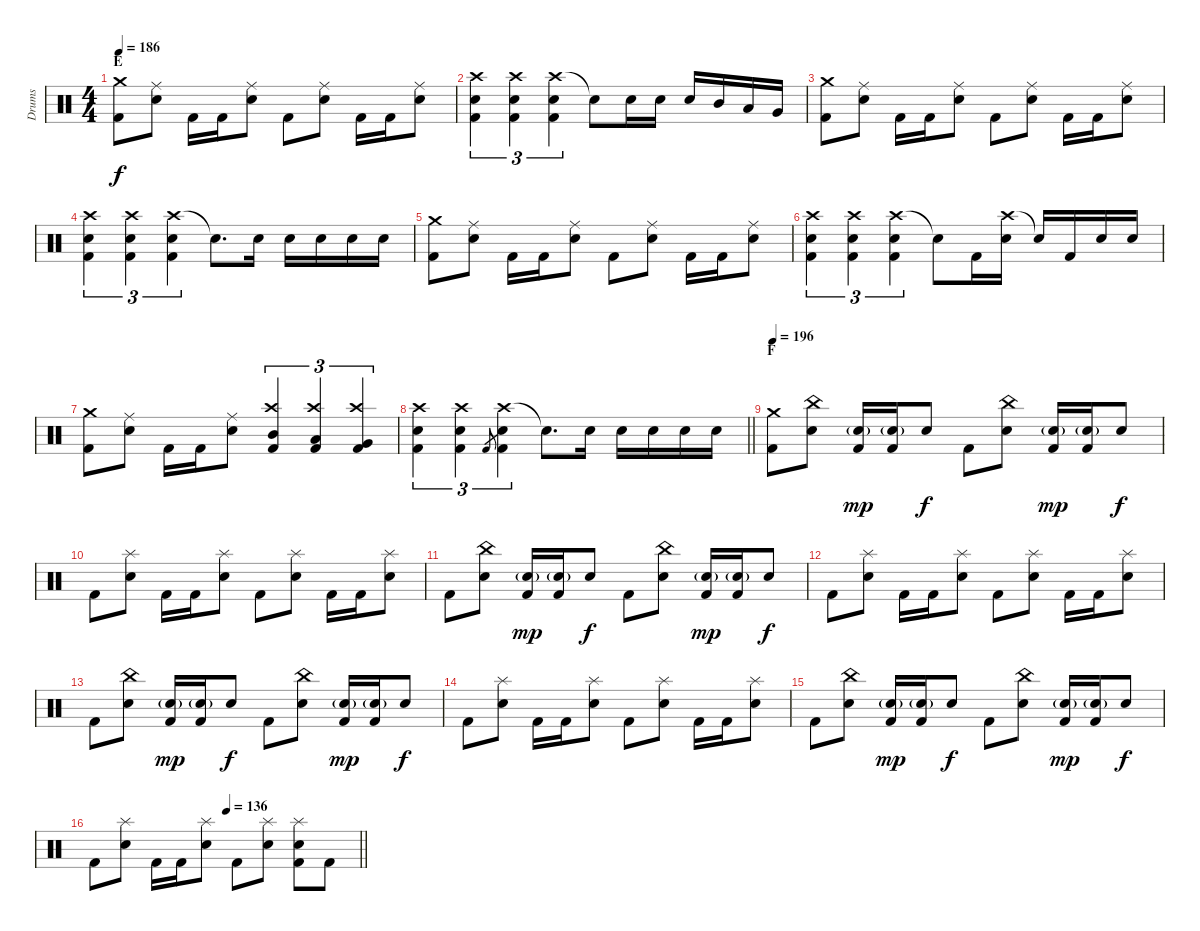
\track ("Drums" "Drums") {instrument percussion}
\staff {score}
\articulation defaults
\ts (4 4)
\section ("" "E")
\tempo 186
\clef neutral
\ks c
("Crash medium (hit)" "Kick (hit) 2").8{dy f} ("Ride (middle)" "Electric Snare (hit)").8 "Kick (hit) 2".16 "Kick (hit) 2".16 ("Ride (middle)" "Electric Snare (hit)").8 "Kick (hit) 2".8 ("Ride (middle)" "Electric Snare (hit)").8 "Kick (hit) 2".16 "Kick (hit) 2".16 ("Ride (middle)" "Electric Snare (hit)").8 |
("Crash high (hit)" "Electric Snare (hit)" "Kick (hit) 2").4{tu (3 2)} ("Crash high (hit)" "Electric Snare (hit)" "Kick (hit) 2").4{tu (3 2)} ("Crash high (hit)" "Electric Snare (hit)" "Kick (hit) 2").4{tu (3 2)} "Snare (hit)"{t}.8 "Electric Snare (hit)".16 "Electric Snare (hit)".16 "Electric Snare (hit)".16 "Mid Tom (hit)".16 "Low Tom (hit)".16 "Very Low Tom (hit)".16 |
("Crash medium (hit)" "Kick (hit) 2").8 ("Ride (middle)" "Electric Snare (hit)").8 "Kick (hit) 2".16 "Kick (hit) 2".16 ("Ride (middle)" "Electric Snare (hit)").8 "Kick (hit) 2".8 ("Ride (middle)" "Electric Snare (hit)").8 "Kick (hit) 2".16 "Kick (hit) 2".16 ("Ride (middle)" "Electric Snare (hit)").8 |
("Crash high (hit)" "Electric Snare (hit)" "Kick (hit) 2").4{tu (3 2)} ("Crash high (hit)" "Electric Snare (hit)" "Kick (hit) 2").4{tu (3 2)} ("Crash high (hit)" "Electric Snare (hit)" "Kick (hit) 2").4{tu (3 2)} "Snare (hit)"{t}.8{d} "Electric Snare (hit)".16 "Electric Snare (hit)".16 "Electric Snare (hit)".16 "Electric Snare (hit)".16 "Electric Snare (hit)".16 |
("Crash medium (hit)" "Kick (hit) 2").8 ("Ride (middle)" "Electric Snare (hit)").8 "Kick (hit) 2".16 "Kick (hit) 2".16 ("Ride (middle)" "Electric Snare (hit)").8 "Kick (hit) 2".8 ("Ride (middle)" "Electric Snare (hit)").8 "Kick (hit) 2".16 "Kick (hit) 2".16 ("Ride (middle)" "Electric Snare (hit)").8 |
("Crash high (hit)" "Electric Snare (hit)" "Kick (hit) 2").4{tu (3 2)} ("Crash high (hit)" "Electric Snare (hit)" "Kick (hit) 2").4{tu (3 2)} ("Crash high (hit)" "Electric Snare (hit)" "Kick (hit) 2").4{tu (3 2)} "Snare (hit)"{t}.8 "Kick (hit) 2".16 ("Crash high (hit)" "Electric Snare (hit)").16 "Snare (hit)"{t}.16 "Kick (hit) 2".16 "Electric Snare (hit)".16 "Electric Snare (hit)".16 |
("Crash medium (hit)" "Kick (hit) 2").8 ("Ride (middle)" "Electric Snare (hit)").8 "Kick (hit) 2".16 "Kick (hit) 2".16 ("Ride (middle)" "Electric Snare (hit)").8 ("Crash high (hit)" "Mid Tom (hit)" "Kick (hit) 2").4{tu (3 2)} ("Crash high (hit)" "Low Tom (hit)" "Kick (hit) 2").4{tu (3 2)} ("Crash high (hit)" "Very Low Tom (hit)" "Kick (hit) 2").4{tu (3 2)} |
\barLineRight lightlight
("Crash high (hit)" "Electric Snare (hit)" "Kick (hit) 2").4{tu (3 2)} ("Crash high (hit)" "Electric Snare (hit)" "Kick (hit) 2").4{tu (3 2)} "Kick (hit) 2".8{gr} ("Crash high (hit)" "Electric Snare (hit)" "Kick (hit) 2").4{tu (3 2)} "Snare (hit)"{t}.8{d} "Electric Snare (hit)".16 "Electric Snare (hit)".16 "Electric Snare (hit)".16 "Electric Snare (hit)".16 "Electric Snare (hit)".16 |
\section ("" "F")
\tempo 196
("Crash medium (hit)" "Kick (hit) 2").8 ("China (hit)" "Electric Snare (hit)").8 ("Electric Snare (hit)"{g} "Kick (hit) 2").16{dy mp} ("Electric Snare (hit)"{g} "Kick (hit) 2").16 "Electric Snare (hit)".8{dy f} "Kick (hit) 2".8 ("China (hit)" "Electric Snare (hit)").8 ("Electric Snare (hit)"{g} "Kick (hit) 2").16{dy mp} ("Electric Snare (hit)"{g} "Kick (hit) 2").16 "Electric Snare (hit)".8{dy f} |
"Kick (hit) 2".8 ("Splash (hit)" "Electric Snare (hit)").8 "Kick (hit) 2".16 "Kick (hit) 2".16 ("Splash (hit)" "Electric Snare (hit)").8 "Kick (hit) 2".8 ("Splash (hit)" "Electric Snare (hit)").8 "Kick (hit) 2".16 "Kick (hit) 2".16 ("Splash (hit)" "Electric Snare (hit)").8 |
"Kick (hit) 2".8 ("China (hit)" "Electric Snare (hit)").8 ("Electric Snare (hit)"{g} "Kick (hit) 2").16{dy mp} ("Electric Snare (hit)"{g} "Kick (hit) 2").16 "Electric Snare (hit)".8{dy f} "Kick (hit) 2".8 ("China (hit)" "Electric Snare (hit)").8 ("Electric Snare (hit)"{g} "Kick (hit) 2").16{dy mp} ("Electric Snare (hit)"{g} "Kick (hit) 2").16 "Electric Snare (hit)".8{dy f} |
"Kick (hit) 2".8 ("Splash (hit)" "Electric Snare (hit)").8 "Kick (hit) 2".16 "Kick (hit) 2".16 ("Splash (hit)" "Electric Snare (hit)").8 "Kick (hit) 2".8 ("Splash (hit)" "Electric Snare (hit)").8 "Kick (hit) 2".16 "Kick (hit) 2".16 ("Splash (hit)" "Electric Snare (hit)").8 |
"Kick (hit) 2".8 ("China (hit)" "Electric Snare (hit)").8 ("Electric Snare (hit)"{g} "Kick (hit) 2").16{dy mp} ("Electric Snare (hit)"{g} "Kick (hit) 2").16 "Electric Snare (hit)".8{dy f} "Kick (hit) 2".8 ("China (hit)" "Electric Snare (hit)").8 ("Electric Snare (hit)"{g} "Kick (hit) 2").16{dy mp} ("Electric Snare (hit)"{g} "Kick (hit) 2").16 "Electric Snare (hit)".8{dy f} |
"Kick (hit) 2".8 ("Splash (hit)" "Electric Snare (hit)").8 "Kick (hit) 2".16 "Kick (hit) 2".16 ("Splash (hit)" "Electric Snare (hit)").8 "Kick (hit) 2".8 ("Splash (hit)" "Electric Snare (hit)").8 "Kick (hit) 2".16 "Kick (hit) 2".16 ("Splash (hit)" "Electric Snare (hit)").8 |
"Kick (hit) 2".8 ("China (hit)" "Electric Snare (hit)").8 ("Electric Snare (hit)"{g} "Kick (hit) 2").16{dy mp} ("Electric Snare (hit)"{g} "Kick (hit) 2").16 "Electric Snare (hit)".8{dy f} "Kick (hit) 2".8 ("China (hit)" "Electric Snare (hit)").8 ("Electric Snare (hit)"{g} "Kick (hit) 2").16{dy mp} ("Electric Snare (hit)"{g} "Kick (hit) 2").16 "Electric Snare (hit)".8{dy f} |
\tempo (136 0.5)
\barLineRight lightlight "Kick (hit) 2".8
("Splash (hit)" "Electric Snare (hit)").8 "Kick (hit) 2".16 "Kick (hit) 2".16 ("Splash (hit)" "Electric Snare (hit)").8 "Kick (hit) 2".8 ("Splash (hit)" "Electric Snare (hit)").8 ("Splash (hit)" "Electric Snare (hit)" "Kick (hit) 2").8 "Kick (hit) 2".8
